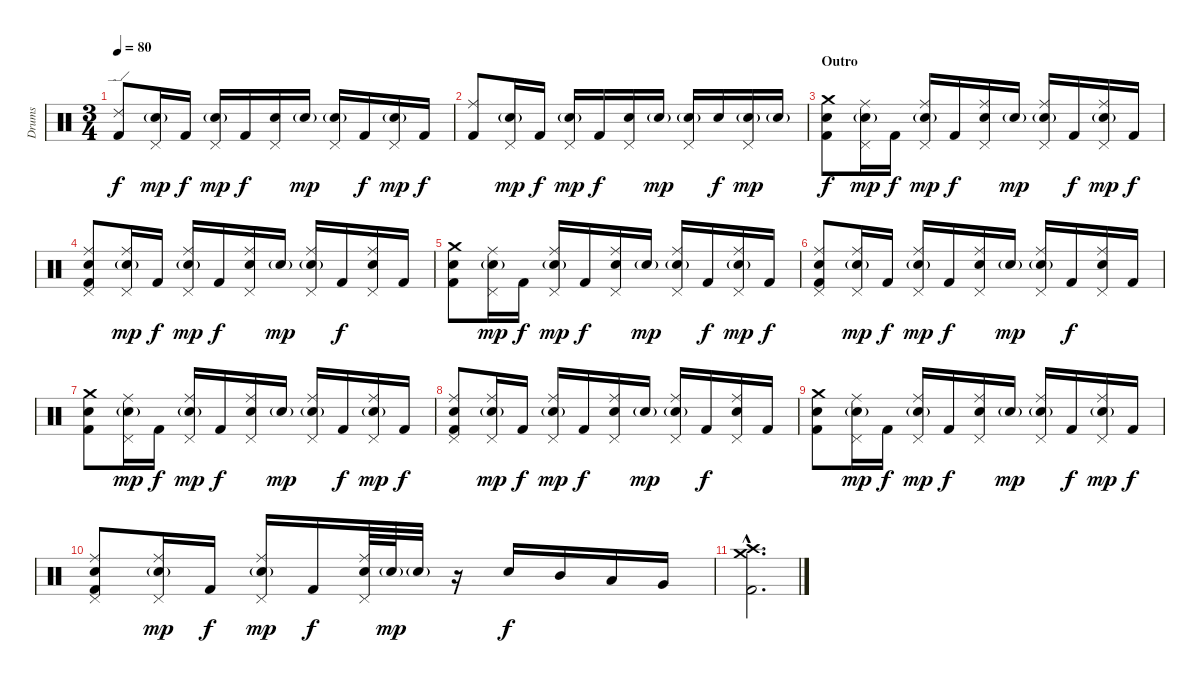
\track ("Drums" "Drums") {instrument percussion}
\staff {score}
\articulation defaults
\ts (3 4)
\tempo 80
\clef neutral
\ks c
("Ride (edge) 2" "Kick (hit) 2").8{dy f} ("Pedal Hi-Hat (hit)" "Snare (hit) 2"{g}).16{dy mp} "Kick (hit) 2".16{dy f} ("Pedal Hi-Hat (hit)" "Snare (hit) 2"{g}).16{dy mp} "Kick (hit) 2".16{dy f} ("Pedal Hi-Hat (hit)" "Snare (hit) 2").16 "Snare (hit) 2"{g}.16{dy mp} ("Pedal Hi-Hat (hit)" "Snare (hit) 2"{g}).16 "Kick (hit) 2".16{dy f} ("Pedal Hi-Hat (hit)" "Snare (hit) 2"{g}).16{dy mp} "Kick (hit) 2".16{dy f} |
("Ride (middle)" "Kick (hit) 2").8 ("Pedal Hi-Hat (hit)" "Snare (hit) 2"{g}).16{dy mp} "Kick (hit) 2".16{dy f} ("Pedal Hi-Hat (hit)" "Snare (hit) 2"{g}).16{dy mp} "Kick (hit) 2".16{dy f} ("Pedal Hi-Hat (hit)" "Snare (hit) 2").16 "Snare (hit) 2"{g}.16{dy mp} ("Pedal Hi-Hat (hit)" "Snare (hit) 2"{g}).16 "Snare (hit) 2".16{dy f} ("Pedal Hi-Hat (hit)" "Snare (hit) 2"{g}).16{dy mp} "Snare (hit) 2"{g}.16 |
\section ("" "Outro")
("Crash medium (hit)" "Snare (hit) 2" "Kick (hit) 2").8{dy f} ("Ride (middle)" "Pedal Hi-Hat (hit)" "Snare (hit) 2"{g}).16{dy mp} "Kick (hit) 2".16{dy f} ("Ride (middle)" "Pedal Hi-Hat (hit)" "Snare (hit) 2"{g}).16{dy mp} "Kick (hit) 2".16{dy f} ("Ride (middle)" "Pedal Hi-Hat (hit)" "Snare (hit) 2").16 "Snare (hit) 2"{g}.16{dy mp} ("Ride (middle)" "Pedal Hi-Hat (hit)" "Snare (hit) 2"{g}).16 "Kick (hit) 2".16{dy f} ("Ride (middle)" "Pedal Hi-Hat (hit)" "Snare (hit) 2"{g}).16{dy mp} "Kick (hit) 2".16{dy f} |
("Ride (middle)" "Pedal Hi-Hat (hit)" "Snare (hit) 2" "Kick (hit) 2").8 ("Ride (middle)" "Pedal Hi-Hat (hit)" "Snare (hit) 2"{g}).16{dy mp} "Kick (hit) 2".16{dy f} ("Ride (middle)" "Pedal Hi-Hat (hit)" "Snare (hit) 2"{g}).16{dy mp} "Kick (hit) 2".16{dy f} ("Ride (middle)" "Pedal Hi-Hat (hit)" "Snare (hit) 2").16 "Snare (hit) 2"{g}.16{dy mp} ("Ride (middle)" "Pedal Hi-Hat (hit)" "Snare (hit) 2"{g}).16 "Kick (hit) 2".16{dy f} ("Ride (middle)" "Pedal Hi-Hat (hit)" "Snare (hit) 2").16 "Kick (hit) 2".16 |
("Crash medium (hit)" "Snare (hit) 2" "Kick (hit) 2").8 ("Ride (middle)" "Pedal Hi-Hat (hit)" "Snare (hit) 2"{g}).16{dy mp} "Kick (hit) 2".16{dy f} ("Ride (middle)" "Pedal Hi-Hat (hit)" "Snare (hit) 2"{g}).16{dy mp} "Kick (hit) 2".16{dy f} ("Ride (middle)" "Pedal Hi-Hat (hit)" "Snare (hit) 2").16 "Snare (hit) 2"{g}.16{dy mp} ("Ride (middle)" "Pedal Hi-Hat (hit)" "Snare (hit) 2"{g}).16 "Kick (hit) 2".16{dy f} ("Ride (middle)" "Pedal Hi-Hat (hit)" "Snare (hit) 2"{g}).16{dy mp} "Kick (hit) 2".16{dy f} |
("Ride (middle)" "Pedal Hi-Hat (hit)" "Snare (hit) 2" "Kick (hit) 2").8 ("Ride (middle)" "Pedal Hi-Hat (hit)" "Snare (hit) 2"{g}).16{dy mp} "Kick (hit) 2".16{dy f} ("Ride (middle)" "Pedal Hi-Hat (hit)" "Snare (hit) 2"{g}).16{dy mp} "Kick (hit) 2".16{dy f} ("Ride (middle)" "Pedal Hi-Hat (hit)" "Snare (hit) 2").16 "Snare (hit) 2"{g}.16{dy mp} ("Ride (middle)" "Pedal Hi-Hat (hit)" "Snare (hit) 2"{g}).16 "Kick (hit) 2".16{dy f} ("Ride (middle)" "Pedal Hi-Hat (hit)" "Snare (hit) 2").16 "Kick (hit) 2".16 |
("Crash medium (hit)" "Snare (hit) 2" "Kick (hit) 2").8 ("Ride (middle)" "Pedal Hi-Hat (hit)" "Snare (hit) 2"{g}).16{dy mp} "Kick (hit) 2".16{dy f} ("Ride (middle)" "Pedal Hi-Hat (hit)" "Snare (hit) 2"{g}).16{dy mp} "Kick (hit) 2".16{dy f} ("Ride (middle)" "Pedal Hi-Hat (hit)" "Snare (hit) 2").16 "Snare (hit) 2"{g}.16{dy mp} ("Ride (middle)" "Pedal Hi-Hat (hit)" "Snare (hit) 2"{g}).16 "Kick (hit) 2".16{dy f} ("Ride (middle)" "Pedal Hi-Hat (hit)" "Snare (hit) 2"{g}).16{dy mp} "Kick (hit) 2".16{dy f} |
("Ride (middle)" "Pedal Hi-Hat (hit)" "Snare (hit) 2" "Kick (hit) 2").8 ("Ride (middle)" "Pedal Hi-Hat (hit)" "Snare (hit) 2"{g}).16{dy mp} "Kick (hit) 2".16{dy f} ("Ride (middle)" "Pedal Hi-Hat (hit)" "Snare (hit) 2"{g}).16{dy mp} "Kick (hit) 2".16{dy f} ("Ride (middle)" "Pedal Hi-Hat (hit)" "Snare (hit) 2").16 "Snare (hit) 2"{g}.16{dy mp} ("Ride (middle)" "Pedal Hi-Hat (hit)" "Snare (hit) 2"{g}).16 "Kick (hit) 2".16{dy f} ("Ride (middle)" "Pedal Hi-Hat (hit)" "Snare (hit) 2").16 "Kick (hit) 2".16 |
("Crash medium (hit)" "Snare (hit) 2" "Kick (hit) 2").8 ("Ride (middle)" "Pedal Hi-Hat (hit)" "Snare (hit) 2"{g}).16{dy mp} "Kick (hit) 2".16{dy f} ("Ride (middle)" "Pedal Hi-Hat (hit)" "Snare (hit) 2"{g}).16{dy mp} "Kick (hit) 2".16{dy f} ("Ride (middle)" "Pedal Hi-Hat (hit)" "Snare (hit) 2").16 "Snare (hit) 2"{g}.16{dy mp} ("Ride (middle)" "Pedal Hi-Hat (hit)" "Snare (hit) 2"{g}).16 "Kick (hit) 2".16{dy f} ("Ride (middle)" "Pedal Hi-Hat (hit)" "Snare (hit) 2"{g}).16{dy mp} "Kick (hit) 2".16{dy f} |
("Ride (middle)" "Pedal Hi-Hat (hit)" "Snare (hit) 2" "Kick (hit) 2").8 ("Ride (middle)" "Pedal Hi-Hat (hit)" "Snare (hit) 2"{g}).16{dy mp} "Kick (hit) 2".16{dy f} ("Ride (middle)" "Pedal Hi-Hat (hit)" "Snare (hit) 2"{g}).16{dy mp} "Kick (hit) 2".16{dy f} ("Ride (middle)" "Pedal Hi-Hat (hit)" "Snare (hit) 2").64 "Snare (hit) 2"{g}.64{dy mp} "Snare (hit) 2"{g}.32 r.16 "Snare (hit) 2".16{dy f} "Mid Tom (hit)".16 "Low Tom (hit)".16 "Very Low Tom (hit)".16 |
("Crash medium (hit)"{hac} "Crash high (hit)"{hac} "Kick (hit) 2"{hac}).2{d}
